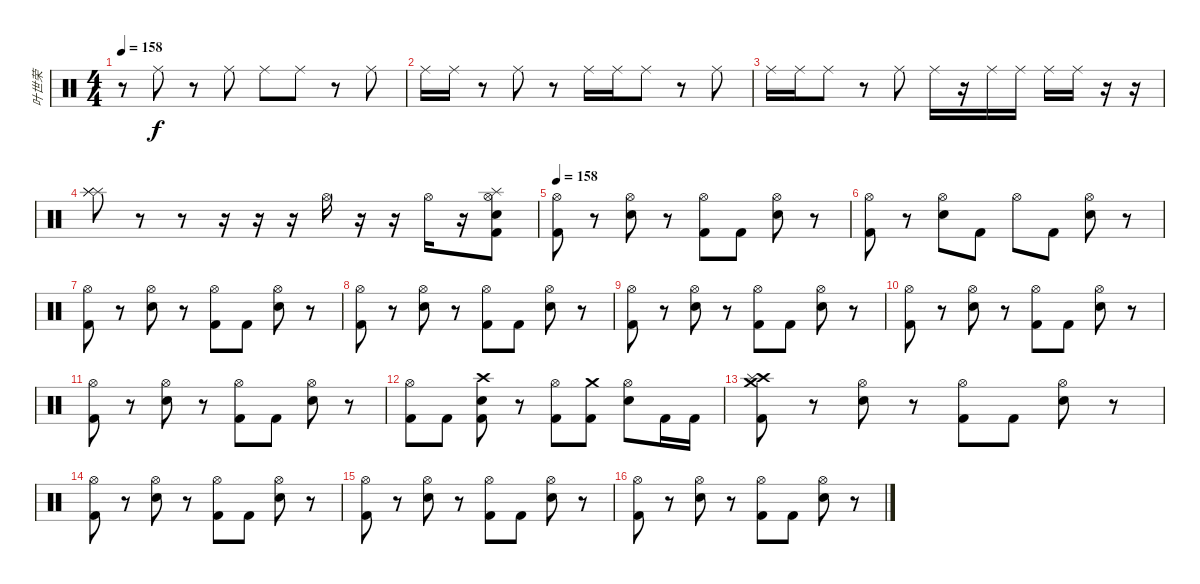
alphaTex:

\track ("叶世荣" "叶世荣") {instrument percussion}
\staff {score}
\articulation defaults
\ts (4 4)
\tempo 158
\clef neutral
\ks c
r.8{dy f} "Ride (middle)".8 r.8 "Ride (middle)".8 "Ride (middle)".8 "Ride (middle)".8 r.8 "Ride (middle)".8 |
"Ride (middle)".16 "Ride (middle)".16 r.8 "Ride (middle)".8 r.8 "Ride (middle)".16 "Ride (middle)".16 "Ride (middle)".8 r.8 "Ride (middle)".8 |
"Ride (middle)".16 "Ride (middle)".16 "Ride (middle)".8 r.8 "Ride (middle)".8 "Ride (middle)".16 r.16 "Ride (middle)".16 "Ride (middle)".16 "Ride (middle)".16 "Ride (middle)".16 r.16 r.16 |
("Splash (hit)" "Splash (hit)" "Splash (hit)").8 r.8 r.8 r.16 r.16 r.16 "Hi-Hat (open)".16 r.16 r.16 "Hi-Hat (open)".16 r.16 ("Hi-Hat (open)" "Splash (hit)" "Snare (hit) 2" "Kick (hit) 2").8 |
\tempo 158
("Hi-Hat (open)" "Kick (hit) 2").8 r.8 ("Hi-Hat (open)" "Snare (hit) 2").8 r.8 ("Hi-Hat (open)" "Kick (hit) 2").8 "Kick (hit) 2".8 ("Hi-Hat (open)" "Snare (hit) 2").8 r.8 |
("Hi-Hat (open)" "Kick (hit) 2").8 r.8 ("Hi-Hat (open)" "Snare (hit) 2").8 "Kick (hit) 2".8 "Hi-Hat (open)".8 "Kick (hit) 2".8 ("Hi-Hat (open)" "Snare (hit) 2").8 r.8 |
("Hi-Hat (open)" "Kick (hit) 2").8 r.8 ("Hi-Hat (open)" "Snare (hit) 2").8 r.8 ("Hi-Hat (open)" "Kick (hit) 2").8 "Kick (hit) 2".8 ("Hi-Hat (open)" "Snare (hit) 2").8 r.8 |
("Hi-Hat (open)" "Kick (hit) 2").8 r.8 ("Hi-Hat (open)" "Snare (hit) 2").8 r.8 ("Hi-Hat (open)" "Kick (hit) 2").8 "Kick (hit) 2".8 ("Hi-Hat (open)" "Snare (hit) 2").8 r.8 |
("Hi-Hat (open)" "Kick (hit) 2").8 r.8 ("Hi-Hat (open)" "Snare (hit) 2").8 r.8 ("Hi-Hat (open)" "Kick (hit) 2").8 "Kick (hit) 2".8 ("Hi-Hat (open)" "Snare (hit) 2").8 r.8 |
("Hi-Hat (open)" "Kick (hit) 2").8 r.8 ("Hi-Hat (open)" "Snare (hit) 2").8 r.8 ("Hi-Hat (open)" "Kick (hit) 2").8 "Kick (hit) 2".8 ("Hi-Hat (open)" "Snare (hit) 2").8 r.8 |
("Hi-Hat (open)" "Kick (hit) 2").8 r.8 ("Hi-Hat (open)" "Snare (hit) 2").8 r.8 ("Hi-Hat (open)" "Kick (hit) 2").8 "Kick (hit) 2".8 ("Hi-Hat (open)" "Snare (hit) 2").8 r.8 |
("Hi-Hat (open)" "Kick (hit) 2").8 "Kick (hit) 2".8 ("Crash high (hit)" "Snare (hit) 2" "Kick (hit) 2").8 r.8 ("Hi-Hat (open)" "Kick (hit) 2").8 ("Crash medium (hit)" "Kick (hit) 2").8 ("Hi-Hat (open)" "Snare (hit) 2").8 "Kick (hit) 2".16 "Kick (hit) 2".16 |
("Crash medium (hit)" "Crash high (hit)" "Splash (hit)" "Kick (hit) 2").8 r.8 ("Hi-Hat (open)" "Snare (hit) 2").8 r.8 ("Hi-Hat (open)" "Kick (hit) 2").8 "Kick (hit) 2".8 ("Hi-Hat (open)" "Snare (hit) 2").8 r.8 |
("Hi-Hat (open)" "Kick (hit) 2").8 r.8 ("Hi-Hat (open)" "Snare (hit) 2").8 r.8 ("Hi-Hat (open)" "Kick (hit) 2").8 "Kick (hit) 2".8 ("Hi-Hat (open)" "Snare (hit) 2").8 r.8 |
("Hi-Hat (open)" "Kick (hit) 2").8 r.8 ("Hi-Hat (open)" "Snare (hit) 2").8 r.8 ("Hi-Hat (open)" "Kick (hit) 2").8 "Kick (hit) 2".8 ("Hi-Hat (open)" "Snare (hit) 2").8 r.8 |
("Hi-Hat (open)" "Kick (hit) 2").8 r.8 ("Hi-Hat (open)" "Snare (hit) 2").8 r.8 ("Hi-Hat (open)" "Kick (hit) 2").8 "Kick (hit) 2".8 ("Hi-Hat (open)" "Snare (hit) 2").8 r.8
